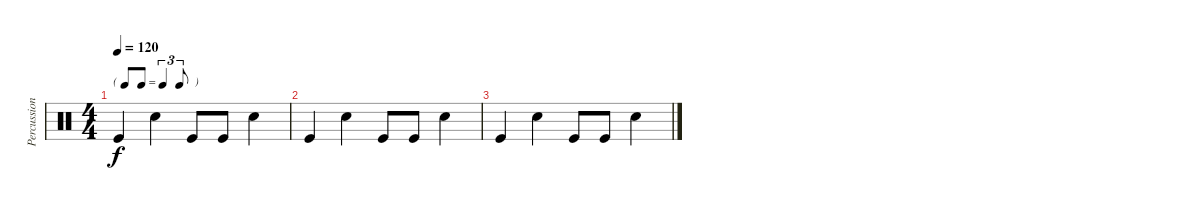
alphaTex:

\track ("Percussion" "Percussion") {instrument percussion}
\staff {score}
\articulation defaults
\ts (4 4)
\tf triplet8th
\tempo 120
\clef neutral
\ks c "Kick (hit)".4{dy f} "Snare (hit) 2".4 "Kick (hit)".8 "Kick (hit)".8 "Snare (hit) 2".4
|
"Kick (hit)".4 "Snare (hit) 2".4 "Kick (hit)".8 "Kick (hit)".8 "Snare (hit) 2".4 |
"Kick (hit)".4 "Snare (hit) 2".4 "Kick (hit)".8 "Kick (hit)".8 "Snare (hit) 2".4
